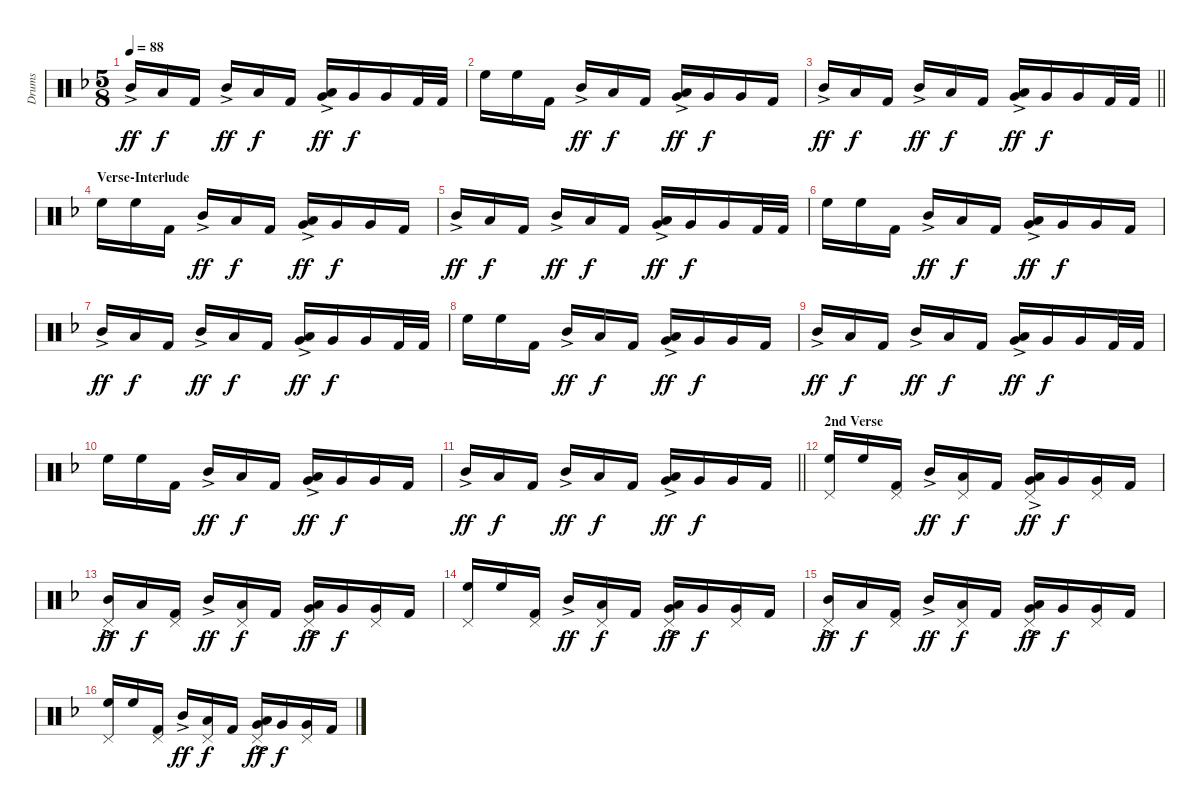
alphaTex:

\track ("Drums" "Drums") {instrument percussion}
\staff {score}
\articulation defaults
\ts (5 8)
\tempo 88
\clef neutral
\ks dminor "Mid Tom (hit)"{ac}.16{dy ff} "Low Tom (hit)".16{dy f beam merge} "Kick (hit) 2".16{beam split} "Mid Tom (hit)"{ac}.16{dy ff beam merge} "Low Tom (hit)".16{dy f} "Kick (hit) 2".16{beam split}
("Low Tom (hit)"{ac} "Very Low Tom (hit)").16{dy ff} "Very Low Tom (hit)".16{dy f beam merge} "Very Low Tom (hit)".16 "Kick (hit) 2".32 "Kick (hit) 2".32 |
"High Floor Tom (hit)".16 "High Floor Tom (hit)".16{beam merge} "Kick (hit) 2".16{beam split} "Mid Tom (hit)"{ac}.16{dy ff beam merge} "Low Tom (hit)".16{dy f} "Kick (hit) 2".16{beam split} ("Low Tom (hit)"{ac} "Very Low Tom (hit)").16{dy ff} "Very Low Tom (hit)".16{dy f beam merge} "Very Low Tom (hit)".16 "Kick (hit) 2".16 |
\barLineRight lightlight "Mid Tom (hit)"{ac}.16{dy ff} "Low Tom (hit)".16{dy f beam merge} "Kick (hit) 2".16{beam split} "Mid Tom (hit)"{ac}.16{dy ff beam merge} "Low Tom (hit)".16{dy f} "Kick (hit) 2".16{beam split}
("Low Tom (hit)"{ac} "Very Low Tom (hit)").16{dy ff} "Very Low Tom (hit)".16{dy f beam merge} "Very Low Tom (hit)".16 "Kick (hit) 2".32 "Kick (hit) 2".32 |
\section ("" "Verse-Interlude")
"High Floor Tom (hit)".16 "High Floor Tom (hit)".16{beam merge} "Kick (hit) 2".16{beam split} "Mid Tom (hit)"{ac}.16{dy ff beam merge} "Low Tom (hit)".16{dy f} "Kick (hit) 2".16{beam split} ("Low Tom (hit)"{ac} "Very Low Tom (hit)").16{dy ff} "Very Low Tom (hit)".16{dy f beam merge} "Very Low Tom (hit)".16 "Kick (hit) 2".16 |
"Mid Tom (hit)"{ac}.16{dy ff} "Low Tom (hit)".16{dy f beam merge} "Kick (hit) 2".16{beam split} "Mid Tom (hit)"{ac}.16{dy ff beam merge} "Low Tom (hit)".16{dy f} "Kick (hit) 2".16{beam split} ("Low Tom (hit)"{ac} "Very Low Tom (hit)").16{dy ff} "Very Low Tom (hit)".16{dy f beam merge} "Very Low Tom (hit)".16 "Kick (hit) 2".32 "Kick (hit) 2".32 |
"High Floor Tom (hit)".16 "High Floor Tom (hit)".16{beam merge} "Kick (hit) 2".16{beam split} "Mid Tom (hit)"{ac}.16{dy ff beam merge} "Low Tom (hit)".16{dy f} "Kick (hit) 2".16{beam split} ("Low Tom (hit)"{ac} "Very Low Tom (hit)").16{dy ff} "Very Low Tom (hit)".16{dy f beam merge} "Very Low Tom (hit)".16 "Kick (hit) 2".16 |
"Mid Tom (hit)"{ac}.16{dy ff} "Low Tom (hit)".16{dy f beam merge} "Kick (hit) 2".16{beam split} "Mid Tom (hit)"{ac}.16{dy ff beam merge} "Low Tom (hit)".16{dy f} "Kick (hit) 2".16{beam split} ("Low Tom (hit)"{ac} "Very Low Tom (hit)").16{dy ff} "Very Low Tom (hit)".16{dy f beam merge} "Very Low Tom (hit)".16 "Kick (hit) 2".32 "Kick (hit) 2".32 |
"High Floor Tom (hit)".16 "High Floor Tom (hit)".16{beam merge} "Kick (hit) 2".16{beam split} "Mid Tom (hit)"{ac}.16{dy ff beam merge} "Low Tom (hit)".16{dy f} "Kick (hit) 2".16{beam split} ("Low Tom (hit)"{ac} "Very Low Tom (hit)").16{dy ff} "Very Low Tom (hit)".16{dy f beam merge} "Very Low Tom (hit)".16 "Kick (hit) 2".16 |
"Mid Tom (hit)"{ac}.16{dy ff} "Low Tom (hit)".16{dy f beam merge} "Kick (hit) 2".16{beam split} "Mid Tom (hit)"{ac}.16{dy ff beam merge} "Low Tom (hit)".16{dy f} "Kick (hit) 2".16{beam split} ("Low Tom (hit)"{ac} "Very Low Tom (hit)").16{dy ff} "Very Low Tom (hit)".16{dy f beam merge} "Very Low Tom (hit)".16 "Kick (hit) 2".32 "Kick (hit) 2".32 |
"High Floor Tom (hit)".16 "High Floor Tom (hit)".16{beam merge} "Kick (hit) 2".16{beam split} "Mid Tom (hit)"{ac}.16{dy ff beam merge} "Low Tom (hit)".16{dy f} "Kick (hit) 2".16{beam split} ("Low Tom (hit)"{ac} "Very Low Tom (hit)").16{dy ff} "Very Low Tom (hit)".16{dy f beam merge} "Very Low Tom (hit)".16 "Kick (hit) 2".16 |
\barLineRight lightlight "Mid Tom (hit)"{ac}.16{dy ff} "Low Tom (hit)".16{dy f beam merge} "Kick (hit) 2".16{beam split} "Mid Tom (hit)"{ac}.16{dy ff beam merge} "Low Tom (hit)".16{dy f} "Kick (hit) 2".16{beam split}
("Low Tom (hit)"{ac} "Very Low Tom (hit)").16{dy ff} "Very Low Tom (hit)".16{dy f beam merge} "Very Low Tom (hit)".16 "Kick (hit) 2".16 |
\section ("" "2nd Verse")
("Pedal Hi-Hat (hit)" "High Floor Tom (hit)").16 "High Floor Tom (hit)".16{beam merge} ("Pedal Hi-Hat (hit)" "Kick (hit) 2").16{beam split} "Mid Tom (hit)"{ac}.16{dy ff beam merge} ("Pedal Hi-Hat (hit)" "Low Tom (hit)").16{dy f} "Kick (hit) 2".16{beam split} ("Pedal Hi-Hat (hit)" "Low Tom (hit)"{ac} "Very Low Tom (hit)").16{dy ff} "Very Low Tom (hit)".16{dy f beam merge} ("Pedal Hi-Hat (hit)" "Very Low Tom (hit)").16 "Kick (hit) 2".16 |
("Pedal Hi-Hat (hit)" "Mid Tom (hit)"{ac}).16{dy ff} "Low Tom (hit)".16{dy f beam merge} ("Pedal Hi-Hat (hit)" "Kick (hit) 2").16{beam split} "Mid Tom (hit)"{ac}.16{dy ff beam merge} ("Pedal Hi-Hat (hit)" "Low Tom (hit)").16{dy f} "Kick (hit) 2".16{beam split} ("Pedal Hi-Hat (hit)" "Low Tom (hit)"{ac} "Very Low Tom (hit)").16{dy ff} "Very Low Tom (hit)".16{dy f beam merge} ("Pedal Hi-Hat (hit)" "Very Low Tom (hit)").16 "Kick (hit) 2".16 |
("Pedal Hi-Hat (hit)" "High Floor Tom (hit)").16 "High Floor Tom (hit)".16{beam merge} ("Pedal Hi-Hat (hit)" "Kick (hit) 2").16{beam split} "Mid Tom (hit)"{ac}.16{dy ff beam merge} ("Pedal Hi-Hat (hit)" "Low Tom (hit)").16{dy f} "Kick (hit) 2".16{beam split} ("Pedal Hi-Hat (hit)" "Low Tom (hit)"{ac} "Very Low Tom (hit)").16{dy ff} "Very Low Tom (hit)".16{dy f beam merge} ("Pedal Hi-Hat (hit)" "Very Low Tom (hit)").16 "Kick (hit) 2".16 |
("Pedal Hi-Hat (hit)" "Mid Tom (hit)"{ac}).16{dy ff} "Low Tom (hit)".16{dy f beam merge} ("Pedal Hi-Hat (hit)" "Kick (hit) 2").16{beam split} "Mid Tom (hit)"{ac}.16{dy ff beam merge} ("Pedal Hi-Hat (hit)" "Low Tom (hit)").16{dy f} "Kick (hit) 2".16{beam split} ("Pedal Hi-Hat (hit)" "Low Tom (hit)"{ac} "Very Low Tom (hit)").16{dy ff} "Very Low Tom (hit)".16{dy f beam merge} ("Pedal Hi-Hat (hit)" "Very Low Tom (hit)").16 "Kick (hit) 2".16 |
("Pedal Hi-Hat (hit)" "High Floor Tom (hit)").16 "High Floor Tom (hit)".16{beam merge} ("Pedal Hi-Hat (hit)" "Kick (hit) 2").16{beam split} "Mid Tom (hit)"{ac}.16{dy ff beam merge} ("Pedal Hi-Hat (hit)" "Low Tom (hit)").16{dy f} "Kick (hit) 2".16{beam split} ("Pedal Hi-Hat (hit)" "Low Tom (hit)"{ac} "Very Low Tom (hit)").16{dy ff} "Very Low Tom (hit)".16{dy f beam merge} ("Pedal Hi-Hat (hit)" "Very Low Tom (hit)").16 "Kick (hit) 2".16
